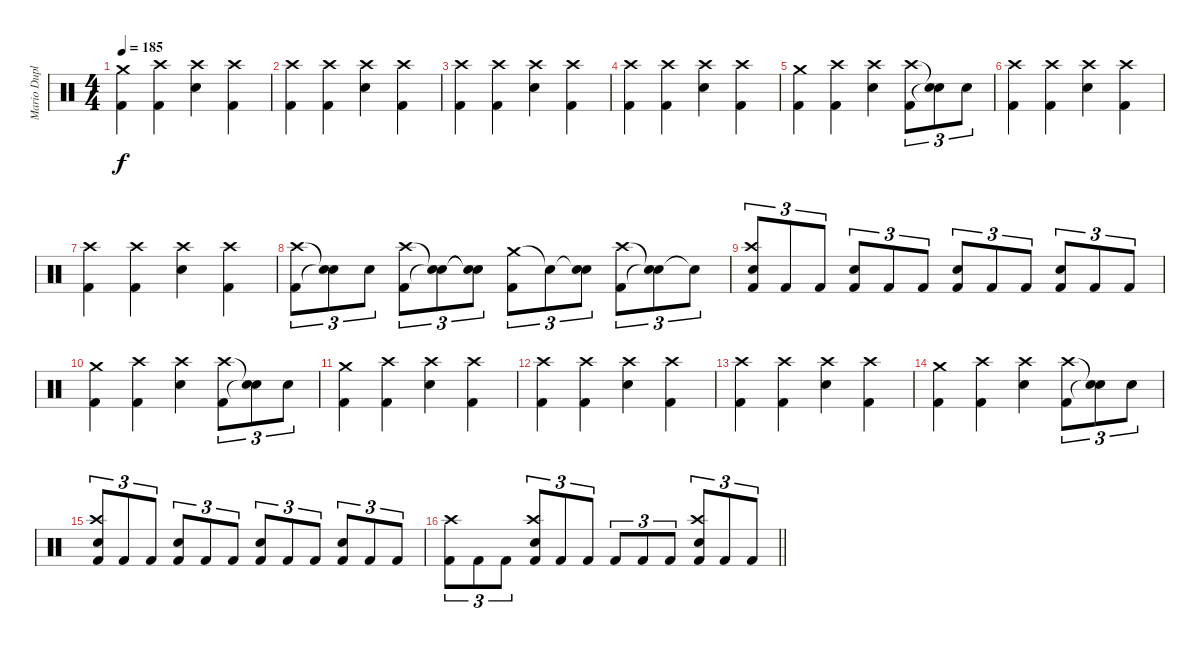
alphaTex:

\track ("Mario Duplantier" "Mario Dupl") {instrument percussion}
\staff {score}
\articulation defaults
\ts (4 4)
\tempo 185
\clef neutral
\ks c
("Crash medium (hit)" "Kick (hit) 2").4{dy f} ("Crash high (hit)" "Kick (hit) 2").4 ("Crash high (hit)" "Electric Snare (hit)").4 ("Crash high (hit)" "Kick (hit) 2").4 |
("Crash high (hit)" "Kick (hit) 2").4 ("Crash high (hit)" "Kick (hit) 2").4 ("Crash high (hit)" "Electric Snare (hit)").4 ("Crash high (hit)" "Kick (hit) 2").4 |
("Crash high (hit)" "Kick (hit) 2").4 ("Crash high (hit)" "Kick (hit) 2").4 ("Crash high (hit)" "Electric Snare (hit)").4 ("Crash high (hit)" "Kick (hit) 2").4 |
("Crash high (hit)" "Kick (hit) 2").4 ("Crash high (hit)" "Kick (hit) 2").4 ("Crash high (hit)" "Electric Snare (hit)").4 ("Crash high (hit)" "Kick (hit) 2").4 |
("Crash medium (hit)" "Kick (hit) 2").4 ("Crash high (hit)" "Kick (hit) 2").4 ("Crash high (hit)" "Electric Snare (hit)").4 ("Crash high (hit)" "Kick (hit) 2").8{tu (3 2)} ("Snare (hit)"{t} "Snare (hit)"{t}).8{tu (3 2)} "Electric Snare (hit)".8{tu (3 2)} |
("Crash high (hit)" "Kick (hit) 2").4 ("Crash high (hit)" "Kick (hit) 2").4 ("Crash high (hit)" "Electric Snare (hit)").4 ("Crash high (hit)" "Kick (hit) 2").4 |
("Crash high (hit)" "Kick (hit) 2").4 ("Crash high (hit)" "Kick (hit) 2").4 ("Crash high (hit)" "Electric Snare (hit)").4 ("Crash high (hit)" "Kick (hit) 2").4 |
("Crash high (hit)" "Kick (hit) 2").8{tu (3 2)} ("Snare (hit)"{t} "Snare (hit)"{t}).8{tu (3 2)} "Electric Snare (hit)".8{tu (3 2)} ("Crash high (hit)" "Kick (hit) 2").8{tu (3 2)} ("Snare (hit)"{t} "Snare (hit)"{t}).8{tu (3 2)} ("Snare (hit)"{t} "Snare (hit)"{t}).8{tu (3 2)} ("Crash medium (hit)" "Kick (hit) 2").8{tu (3 2)} "Snare (hit)"{t}.8{tu (3 2)} ("Snare (hit)"{t} "Electric Snare (hit)").8{tu (3 2)} ("Crash high (hit)" "Kick (hit) 2").8{tu (3 2)} ("Snare (hit)"{t} "Snare (hit)"{t}).8{tu (3 2)} "Snare (hit)"{t}.8{tu (3 2)} |
("Crash high (hit)" "Electric Snare (hit)" "Kick (hit) 2").8{tu (3 2)} "Kick (hit) 2".8{tu (3 2)} "Kick (hit) 2".8{tu (3 2)} ("Electric Snare (hit)" "Kick (hit) 2").8{tu (3 2)} "Kick (hit) 2".8{tu (3 2)} "Kick (hit) 2".8{tu (3 2)} ("Electric Snare (hit)" "Kick (hit) 2").8{tu (3 2)} "Kick (hit) 2".8{tu (3 2)} "Kick (hit) 2".8{tu (3 2)} ("Electric Snare (hit)" "Kick (hit) 2").8{tu (3 2)} "Kick (hit) 2".8{tu (3 2)} "Kick (hit) 2".8{tu (3 2)} |
("Crash medium (hit)" "Kick (hit) 2").4 ("Crash high (hit)" "Kick (hit) 2").4 ("Crash high (hit)" "Electric Snare (hit)").4 ("Crash high (hit)" "Kick (hit) 2").8{tu (3 2)} ("Snare (hit)"{t} "Snare (hit)"{t}).8{tu (3 2)} "Electric Snare (hit)".8{tu (3 2)} |
("Crash medium (hit)" "Kick (hit) 2").4 ("Crash high (hit)" "Kick (hit) 2").4 ("Crash high (hit)" "Electric Snare (hit)").4 ("Crash high (hit)" "Kick (hit) 2").4 |
("Crash high (hit)" "Kick (hit) 2").4 ("Crash high (hit)" "Kick (hit) 2").4 ("Crash high (hit)" "Electric Snare (hit)").4 ("Crash high (hit)" "Kick (hit) 2").4 |
("Crash high (hit)" "Kick (hit) 2").4 ("Crash high (hit)" "Kick (hit) 2").4 ("Crash high (hit)" "Electric Snare (hit)").4 ("Crash high (hit)" "Kick (hit) 2").4 |
("Crash medium (hit)" "Kick (hit) 2").4 ("Crash high (hit)" "Kick (hit) 2").4 ("Crash high (hit)" "Electric Snare (hit)").4 ("Crash high (hit)" "Kick (hit) 2").8{tu (3 2)} ("Snare (hit)"{t} "Snare (hit)"{t}).8{tu (3 2)} "Electric Snare (hit)".8{tu (3 2)} |
("Crash high (hit)" "Electric Snare (hit)" "Kick (hit) 2").8{tu (3 2)} "Kick (hit) 2".8{tu (3 2)} "Kick (hit) 2".8{tu (3 2)} ("Electric Snare (hit)" "Kick (hit) 2").8{tu (3 2)} "Kick (hit) 2".8{tu (3 2)} "Kick (hit) 2".8{tu (3 2)} ("Electric Snare (hit)" "Kick (hit) 2").8{tu (3 2)} "Kick (hit) 2".8{tu (3 2)} "Kick (hit) 2".8{tu (3 2)} ("Electric Snare (hit)" "Kick (hit) 2").8{tu (3 2)} "Kick (hit) 2".8{tu (3 2)} "Kick (hit) 2".8{tu (3 2)} |
\barLineRight lightlight
("Crash high (hit)" "Kick (hit) 2").8{tu (3 2)} "Kick (hit) 2".8{tu (3 2)} "Kick (hit) 2".8{tu (3 2)} ("Crash high (hit)" "Electric Snare (hit)" "Kick (hit) 2").8{tu (3 2)} "Kick (hit) 2".8{tu (3 2)} "Kick (hit) 2".8{tu (3 2)} "Kick (hit) 2".8{tu (3 2)} "Kick (hit) 2".8{tu (3 2)} "Kick (hit) 2".8{tu (3 2)} ("Crash high (hit)" "Electric Snare (hit)" "Kick (hit) 2").8{tu (3 2)} "Kick (hit) 2".8{tu (3 2)} "Kick (hit) 2".8{tu (3 2)}
